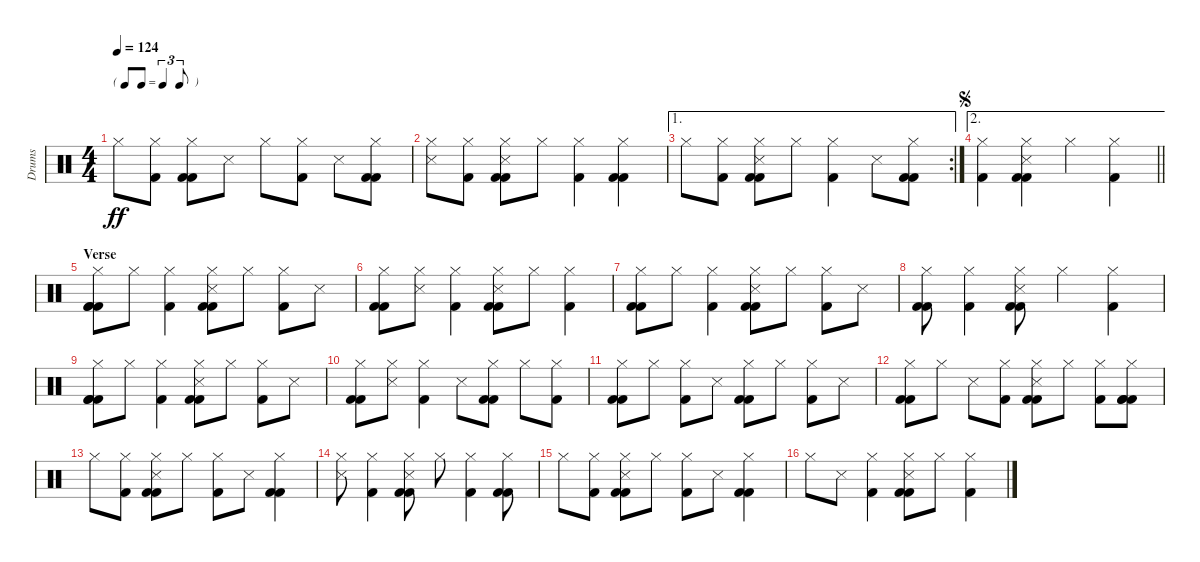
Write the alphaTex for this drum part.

\track ("Drums" "Drums") {instrument percussion}
\staff {score}
\articulation defaults
\ts (4 4)
\tf triplet8th
\tempo 124
\clef neutral
\ks c "Hi-Hat (closed)".8{dy ff}
("Kick (hit) 2" "Hi-Hat (closed)").8 ("Kick (hit) 2" "Kick (hit) 2" "Hi-Hat (closed)").8 "Snare (side stick) 3".8 "Hi-Hat (closed)".8 ("Kick (hit) 2" "Hi-Hat (closed)").8 "Snare (side stick) 3".8 ("Kick (hit) 2" "Kick (hit) 2" "Hi-Hat (closed)").8 |
("Snare (side stick) 3" "Hi-Hat (closed)").8 ("Kick (hit) 2" "Hi-Hat (closed)").8 ("Snare (side stick) 3" "Kick (hit) 2" "Kick (hit) 2" "Hi-Hat (closed)").8 "Hi-Hat (closed)".8 ("Kick (hit) 2" "Hi-Hat (closed)").4 ("Kick (hit) 2" "Kick (hit) 2" "Hi-Hat (closed)").4 |
\ae 1
\rc 2 "Hi-Hat (closed)".8
("Kick (hit) 2" "Hi-Hat (closed)").8 ("Snare (side stick) 3" "Kick (hit) 2" "Kick (hit) 2" "Hi-Hat (closed)").8 "Hi-Hat (closed)".8 ("Kick (hit) 2" "Hi-Hat (closed)").4 "Snare (side stick) 3".8 ("Kick (hit) 2" "Kick (hit) 2" "Hi-Hat (closed)").8 |
\ae 2
\jump segno
\barLineRight lightlight
("Kick (hit) 2" "Hi-Hat (closed)").4 ("Kick (hit) 2" "Kick (hit) 2" "Hi-Hat (closed)" "Snare (side stick) 3").4 "Hi-Hat (closed)".4 ("Kick (hit) 2" "Hi-Hat (closed)").4 |
\section ("" "Verse")
("Kick (hit) 2" "Kick (hit) 2" "Kick (hit) 2" "Hi-Hat (closed)").8 "Hi-Hat (closed)".8 ("Kick (hit) 2" "Hi-Hat (closed)").4 ("Kick (hit) 2" "Kick (hit) 2" "Hi-Hat (closed)" "Snare (side stick) 3").8 "Hi-Hat (closed)".8 ("Kick (hit) 2" "Hi-Hat (closed)").8 "Snare (side stick) 3".8 |
("Kick (hit) 2" "Kick (hit) 2" "Hi-Hat (closed)").8 ("Snare (side stick) 3" "Hi-Hat (closed)").8 ("Kick (hit) 2" "Hi-Hat (closed)").4 ("Snare (side stick) 3" "Kick (hit) 2" "Kick (hit) 2" "Hi-Hat (closed)").8 "Hi-Hat (closed)".8 ("Kick (hit) 2" "Hi-Hat (closed)").4 |
("Kick (hit) 2" "Kick (hit) 2" "Hi-Hat (closed)").8 "Hi-Hat (closed)".8 ("Kick (hit) 2" "Hi-Hat (closed)").4 ("Snare (side stick) 3" "Kick (hit) 2" "Kick (hit) 2" "Hi-Hat (closed)").8 "Hi-Hat (closed)".8 ("Kick (hit) 2" "Hi-Hat (closed)").8 "Snare (side stick) 3".8 |
("Kick (hit) 2" "Kick (hit) 2" "Hi-Hat (closed)").8 ("Kick (hit) 2" "Hi-Hat (closed)").4 ("Kick (hit) 2" "Kick (hit) 2" "Hi-Hat (closed)" "Snare (side stick) 3").8 "Hi-Hat (closed)".4 ("Kick (hit) 2" "Hi-Hat (closed)").4 |
("Kick (hit) 2" "Kick (hit) 2" "Kick (hit) 2" "Hi-Hat (closed)").8 "Hi-Hat (closed)".8 ("Kick (hit) 2" "Hi-Hat (closed)").4 ("Kick (hit) 2" "Kick (hit) 2" "Hi-Hat (closed)" "Snare (side stick) 3").8 "Hi-Hat (closed)".8 ("Kick (hit) 2" "Hi-Hat (closed)").8 "Snare (side stick) 3".8 |
("Kick (hit) 2" "Kick (hit) 2" "Hi-Hat (closed)").8 ("Snare (side stick) 3" "Hi-Hat (closed)").8 ("Kick (hit) 2" "Hi-Hat (closed)").4 "Snare (side stick) 3".8 ("Kick (hit) 2" "Kick (hit) 2" "Hi-Hat (closed)").8 "Hi-Hat (closed)".8 ("Kick (hit) 2" "Hi-Hat (closed)").8 |
("Kick (hit) 2" "Kick (hit) 2" "Hi-Hat (closed)").8 "Hi-Hat (closed)".8 ("Kick (hit) 2" "Hi-Hat (closed)").8 "Snare (side stick) 3".8 ("Kick (hit) 2" "Kick (hit) 2" "Hi-Hat (closed)").8 "Hi-Hat (closed)".8 ("Kick (hit) 2" "Hi-Hat (closed)").8 "Snare (side stick) 3".8 |
("Kick (hit) 2" "Kick (hit) 2" "Hi-Hat (closed)").8 "Hi-Hat (closed)".8 "Snare (side stick) 3".8 ("Kick (hit) 2" "Hi-Hat (closed)").8 ("Kick (hit) 2" "Kick (hit) 2" "Hi-Hat (closed)" "Snare (side stick) 3").8 "Hi-Hat (closed)".8 ("Kick (hit) 2" "Hi-Hat (closed)").8 ("Kick (hit) 2" "Kick (hit) 2" "Kick (hit) 2" "Hi-Hat (closed)").8 |
"Hi-Hat (closed)".8 ("Kick (hit) 2" "Hi-Hat (closed)").8 ("Kick (hit) 2" "Kick (hit) 2" "Hi-Hat (closed)" "Snare (side stick) 3").8 "Hi-Hat (closed)".8 ("Kick (hit) 2" "Hi-Hat (closed)").8 "Snare (side stick) 3".8 ("Kick (hit) 2" "Kick (hit) 2" "Hi-Hat (closed)").4 |
("Snare (side stick) 3" "Hi-Hat (closed)").8 ("Kick (hit) 2" "Hi-Hat (closed)").4 ("Snare (side stick) 3" "Kick (hit) 2" "Kick (hit) 2" "Hi-Hat (closed)").8 "Hi-Hat (closed)".8 ("Kick (hit) 2" "Hi-Hat (closed)").4 ("Kick (hit) 2" "Kick (hit) 2" "Hi-Hat (closed)").8 |
"Hi-Hat (closed)".8 ("Kick (hit) 2" "Hi-Hat (closed)").8 ("Snare (side stick) 3" "Kick (hit) 2" "Kick (hit) 2" "Hi-Hat (closed)").8 "Hi-Hat (closed)".8 ("Kick (hit) 2" "Hi-Hat (closed)").8 "Snare (side stick) 3".8 ("Kick (hit) 2" "Kick (hit) 2" "Hi-Hat (closed)").4 |
"Hi-Hat (closed)".8 "Snare (side stick) 3".8 ("Kick (hit) 2" "Hi-Hat (closed)").4 ("Kick (hit) 2" "Kick (hit) 2" "Hi-Hat (closed)" "Snare (side stick) 3").8 "Hi-Hat (closed)".8 ("Kick (hit) 2" "Hi-Hat (closed)").4
